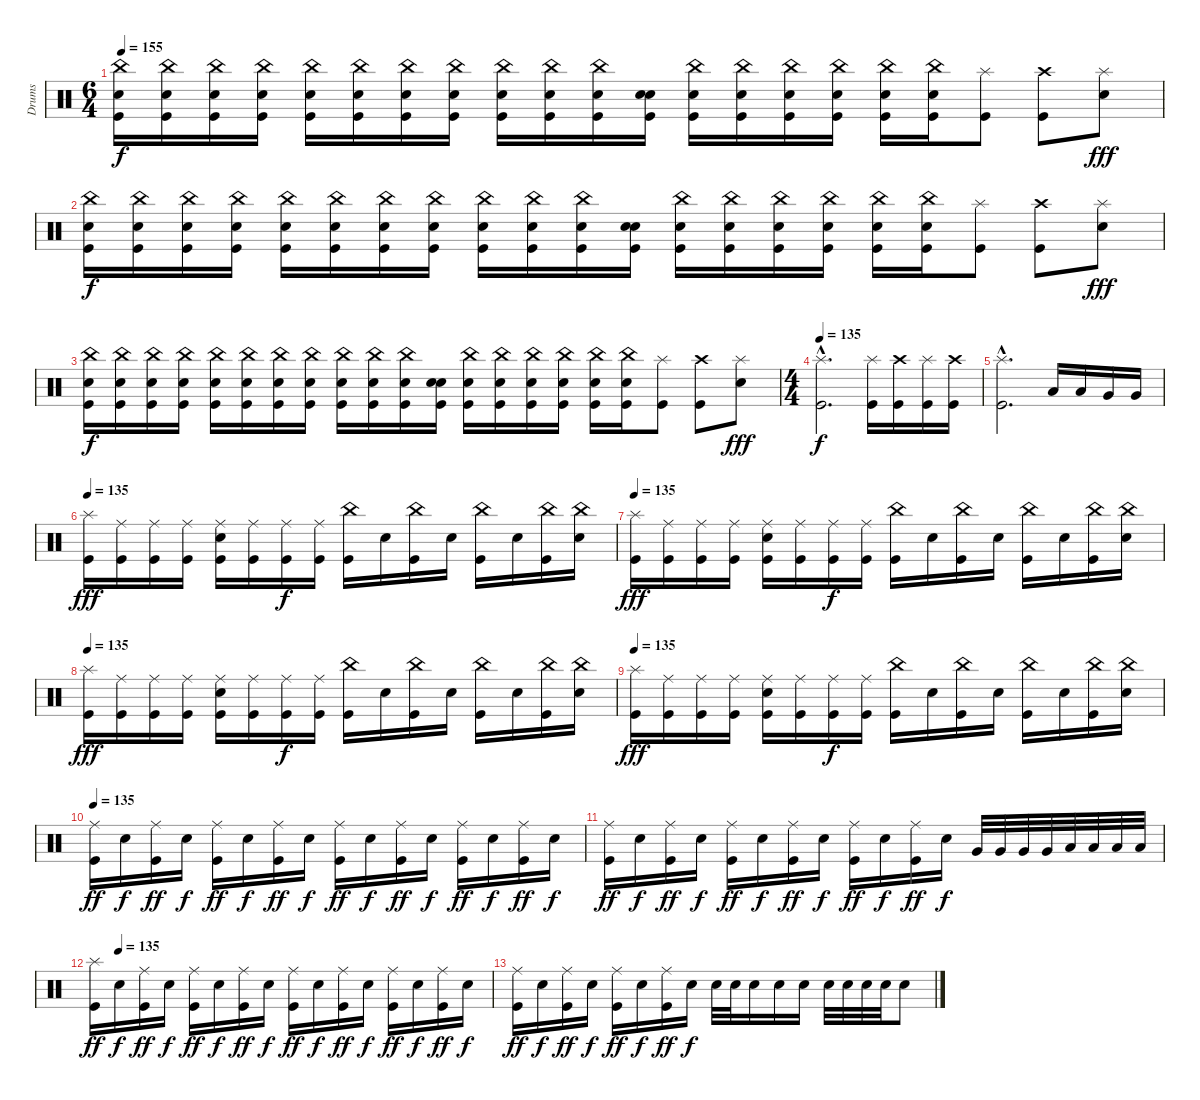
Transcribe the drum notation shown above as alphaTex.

\track ("Drums" "Drums") {instrument percussion}
\staff {score}
\articulation defaults
\ts (6 4)
\tempo 155
\clef neutral
\ks c
("China (hit)" "Electric Snare (hit)" "Kick (hit)").16{dy f} ("China (hit)" "Electric Snare (hit)" "Kick (hit)").16 ("China (hit)" "Electric Snare (hit)" "Kick (hit)").16 ("China (hit)" "Electric Snare (hit)" "Kick (hit)").16 ("China (hit)" "Electric Snare (hit)" "Kick (hit)").16 ("China (hit)" "Electric Snare (hit)" "Kick (hit)").16 ("China (hit)" "Electric Snare (hit)" "Kick (hit)").16 ("China (hit)" "Electric Snare (hit)" "Kick (hit)").16 ("China (hit)" "Electric Snare (hit)" "Kick (hit)").16 ("China (hit)" "Electric Snare (hit)" "Kick (hit)").16 ("China (hit)" "Electric Snare (hit)" "Kick (hit)").16 ("Snare (hit)" "Electric Snare (hit)" "Kick (hit)").16 ("China (hit)" "Electric Snare (hit)" "Kick (hit)").16 ("China (hit)" "Electric Snare (hit)" "Kick (hit)").16 ("China (hit)" "Electric Snare (hit)" "Kick (hit)").16 ("China (hit)" "Electric Snare (hit)" "Kick (hit)").16 ("China (hit)" "Electric Snare (hit)" "Kick (hit)").16 ("China (hit)" "Electric Snare (hit)" "Kick (hit)").16 ("Splash (hit)" "Kick (hit)").8 ("Crash high (hit)" "Kick (hit)").8 ("Splash (hit)" "Electric Snare (hit)").8{dy fff} |
("China (hit)" "Electric Snare (hit)" "Kick (hit)").16{dy f} ("China (hit)" "Electric Snare (hit)" "Kick (hit)").16 ("China (hit)" "Electric Snare (hit)" "Kick (hit)").16 ("China (hit)" "Electric Snare (hit)" "Kick (hit)").16 ("China (hit)" "Electric Snare (hit)" "Kick (hit)").16 ("China (hit)" "Electric Snare (hit)" "Kick (hit)").16 ("China (hit)" "Electric Snare (hit)" "Kick (hit)").16 ("China (hit)" "Electric Snare (hit)" "Kick (hit)").16 ("China (hit)" "Electric Snare (hit)" "Kick (hit)").16 ("China (hit)" "Electric Snare (hit)" "Kick (hit)").16 ("China (hit)" "Electric Snare (hit)" "Kick (hit)").16 ("Snare (hit)" "Electric Snare (hit)" "Kick (hit)").16 ("China (hit)" "Electric Snare (hit)" "Kick (hit)").16 ("China (hit)" "Electric Snare (hit)" "Kick (hit)").16 ("China (hit)" "Electric Snare (hit)" "Kick (hit)").16 ("China (hit)" "Electric Snare (hit)" "Kick (hit)").16 ("China (hit)" "Electric Snare (hit)" "Kick (hit)").16 ("China (hit)" "Electric Snare (hit)" "Kick (hit)").16 ("Splash (hit)" "Kick (hit)").8 ("Crash high (hit)" "Kick (hit)").8 ("Splash (hit)" "Electric Snare (hit)").8{dy fff} |
("China (hit)" "Electric Snare (hit)" "Kick (hit)").16{dy f} ("China (hit)" "Electric Snare (hit)" "Kick (hit)").16 ("China (hit)" "Electric Snare (hit)" "Kick (hit)").16 ("China (hit)" "Electric Snare (hit)" "Kick (hit)").16 ("China (hit)" "Electric Snare (hit)" "Kick (hit)").16 ("China (hit)" "Electric Snare (hit)" "Kick (hit)").16 ("China (hit)" "Electric Snare (hit)" "Kick (hit)").16 ("China (hit)" "Electric Snare (hit)" "Kick (hit)").16 ("China (hit)" "Electric Snare (hit)" "Kick (hit)").16 ("China (hit)" "Electric Snare (hit)" "Kick (hit)").16 ("China (hit)" "Electric Snare (hit)" "Kick (hit)").16 ("Snare (hit)" "Electric Snare (hit)" "Kick (hit)").16 ("China (hit)" "Electric Snare (hit)" "Kick (hit)").16 ("China (hit)" "Electric Snare (hit)" "Kick (hit)").16 ("China (hit)" "Electric Snare (hit)" "Kick (hit)").16 ("China (hit)" "Electric Snare (hit)" "Kick (hit)").16 ("China (hit)" "Electric Snare (hit)" "Kick (hit)").16 ("China (hit)" "Electric Snare (hit)" "Kick (hit)").16 ("Splash (hit)" "Kick (hit)").8 ("Crash high (hit)" "Kick (hit)").8 ("Splash (hit)" "Electric Snare (hit)").8{dy fff} |
\ts (4 4)
\tempo 135
("Splash (hit)"{hac} "Kick (hit)"{hac}).2{d dy f} ("Splash (hit)" "Kick (hit)").16 ("Crash high (hit)" "Kick (hit)").16 ("Splash (hit)" "Kick (hit)").16 ("Crash high (hit)" "Kick (hit)").16 |
("Splash (hit)"{hac} "Kick (hit)"{hac}).2{d} "Low Tom (hit)".16 "Low Tom (hit)".16 "Very Low Tom (hit)".16 "Very Low Tom (hit)".16 |
\tempo 135
("Splash (hit)" "Kick (hit)").16{dy fff} ("Ride (middle)" "Kick (hit)").16 ("Ride (middle)" "Kick (hit)").16 ("Ride (middle)" "Kick (hit)").16 ("Ride (middle)" "Electric Snare (hit)" "Kick (hit)").16 ("Ride (middle)" "Kick (hit)").16 ("Ride (middle)" "Kick (hit)").16{dy f} ("Ride (middle)" "Kick (hit)").16 ("China (hit)" "Kick (hit)").16 "Electric Snare (hit)".16 ("China (hit)" "Kick (hit)").16 "Electric Snare (hit)".16 ("China (hit)" "Kick (hit)").16 "Electric Snare (hit)".16 ("China (hit)" "Kick (hit)").16 ("China (hit)" "Electric Snare (hit)").16 |
\tempo 135
("Splash (hit)" "Kick (hit)").16{dy fff} ("Ride (middle)" "Kick (hit)").16 ("Ride (middle)" "Kick (hit)").16 ("Ride (middle)" "Kick (hit)").16 ("Ride (middle)" "Electric Snare (hit)" "Kick (hit)").16 ("Ride (middle)" "Kick (hit)").16 ("Ride (middle)" "Kick (hit)").16{dy f} ("Ride (middle)" "Kick (hit)").16 ("China (hit)" "Kick (hit)").16 "Electric Snare (hit)".16 ("China (hit)" "Kick (hit)").16 "Electric Snare (hit)".16 ("China (hit)" "Kick (hit)").16 "Electric Snare (hit)".16 ("China (hit)" "Kick (hit)").16 ("China (hit)" "Electric Snare (hit)").16 |
\tempo 135
("Splash (hit)" "Kick (hit)").16{dy fff} ("Ride (middle)" "Kick (hit)").16 ("Ride (middle)" "Kick (hit)").16 ("Ride (middle)" "Kick (hit)").16 ("Ride (middle)" "Electric Snare (hit)" "Kick (hit)").16 ("Ride (middle)" "Kick (hit)").16 ("Ride (middle)" "Kick (hit)").16{dy f} ("Ride (middle)" "Kick (hit)").16 ("China (hit)" "Kick (hit)").16 "Electric Snare (hit)".16 ("China (hit)" "Kick (hit)").16 "Electric Snare (hit)".16 ("China (hit)" "Kick (hit)").16 "Electric Snare (hit)".16 ("China (hit)" "Kick (hit)").16 ("China (hit)" "Electric Snare (hit)").16 |
\tempo 135
("Splash (hit)" "Kick (hit)").16{dy fff} ("Ride (middle)" "Kick (hit)").16 ("Ride (middle)" "Kick (hit)").16 ("Ride (middle)" "Kick (hit)").16 ("Ride (middle)" "Electric Snare (hit)" "Kick (hit)").16 ("Ride (middle)" "Kick (hit)").16 ("Ride (middle)" "Kick (hit)").16{dy f} ("Ride (middle)" "Kick (hit)").16 ("China (hit)" "Kick (hit)").16 "Electric Snare (hit)".16 ("China (hit)" "Kick (hit)").16 "Electric Snare (hit)".16 ("China (hit)" "Kick (hit)").16 "Electric Snare (hit)".16 ("China (hit)" "Kick (hit)").16 ("China (hit)" "Electric Snare (hit)").16 |
\tempo 135
("Ride (middle)" "Kick (hit)").16{dy ff} "Electric Snare (hit)".16{dy f} ("Ride (middle)" "Kick (hit)").16{dy ff} "Electric Snare (hit)".16{dy f} ("Ride (middle)" "Kick (hit)").16{dy ff} "Electric Snare (hit)".16{dy f} ("Ride (middle)" "Kick (hit)").16{dy ff} "Electric Snare (hit)".16{dy f} ("Ride (middle)" "Kick (hit)").16{dy ff} "Electric Snare (hit)".16{dy f} ("Ride (middle)" "Kick (hit)").16{dy ff} "Electric Snare (hit)".16{dy f} ("Ride (middle)" "Kick (hit)").16{dy ff} "Electric Snare (hit)".16{dy f} ("Ride (middle)" "Kick (hit)").16{dy ff} "Electric Snare (hit)".16{dy f} |
("Ride (middle)" "Kick (hit)").16{dy ff} "Electric Snare (hit)".16{dy f} ("Ride (middle)" "Kick (hit)").16{dy ff} "Electric Snare (hit)".16{dy f} ("Ride (middle)" "Kick (hit)").16{dy ff} "Electric Snare (hit)".16{dy f} ("Ride (middle)" "Kick (hit)").16{dy ff} "Electric Snare (hit)".16{dy f} ("Ride (middle)" "Kick (hit)").16{dy ff} "Electric Snare (hit)".16{dy f} ("Ride (middle)" "Kick (hit)").16{dy ff} "Electric Snare (hit)".16{dy f} "Very Low Tom (hit)".32 "Very Low Tom (hit)".32 "Very Low Tom (hit)".32 "Very Low Tom (hit)".32 "Low Floor Tom (hit)".32 "Low Floor Tom (hit)".32 "Low Floor Tom (hit)".32 "Low Floor Tom (hit)".32 |
\tempo (135 0.0625)
("Splash (hit)" "Kick (hit)").16{dy ff} "Electric Snare (hit)".16{dy f} ("Ride (middle)" "Kick (hit)").16{dy ff} "Electric Snare (hit)".16{dy f} ("Ride (middle)" "Kick (hit)").16{dy ff} "Electric Snare (hit)".16{dy f} ("Ride (middle)" "Kick (hit)").16{dy ff} "Electric Snare (hit)".16{dy f} ("Ride (middle)" "Kick (hit)").16{dy ff} "Electric Snare (hit)".16{dy f} ("Ride (middle)" "Kick (hit)").16{dy ff} "Electric Snare (hit)".16{dy f} ("Ride (middle)" "Kick (hit)").16{dy ff} "Electric Snare (hit)".16{dy f} ("Ride (middle)" "Kick (hit)").16{dy ff} "Electric Snare (hit)".16{dy f} |
("Ride (middle)" "Kick (hit)").16{dy ff} "Electric Snare (hit)".16{dy f} ("Ride (middle)" "Kick (hit)").16{dy ff} "Electric Snare (hit)".16{dy f} ("Ride (middle)" "Kick (hit)").16{dy ff} "Electric Snare (hit)".16{dy f} ("Ride (middle)" "Kick (hit)").16{dy ff} "Electric Snare (hit)".16{dy f} "Electric Snare (hit)".32 "Electric Snare (hit)".32 "Electric Snare (hit)".16 "Electric Snare (hit)".16 "Electric Snare (hit)".16 "Electric Snare (hit)".32 "Electric Snare (hit)".32 "Electric Snare (hit)".32 "Electric Snare (hit)".32 "Electric Snare (hit)".8
